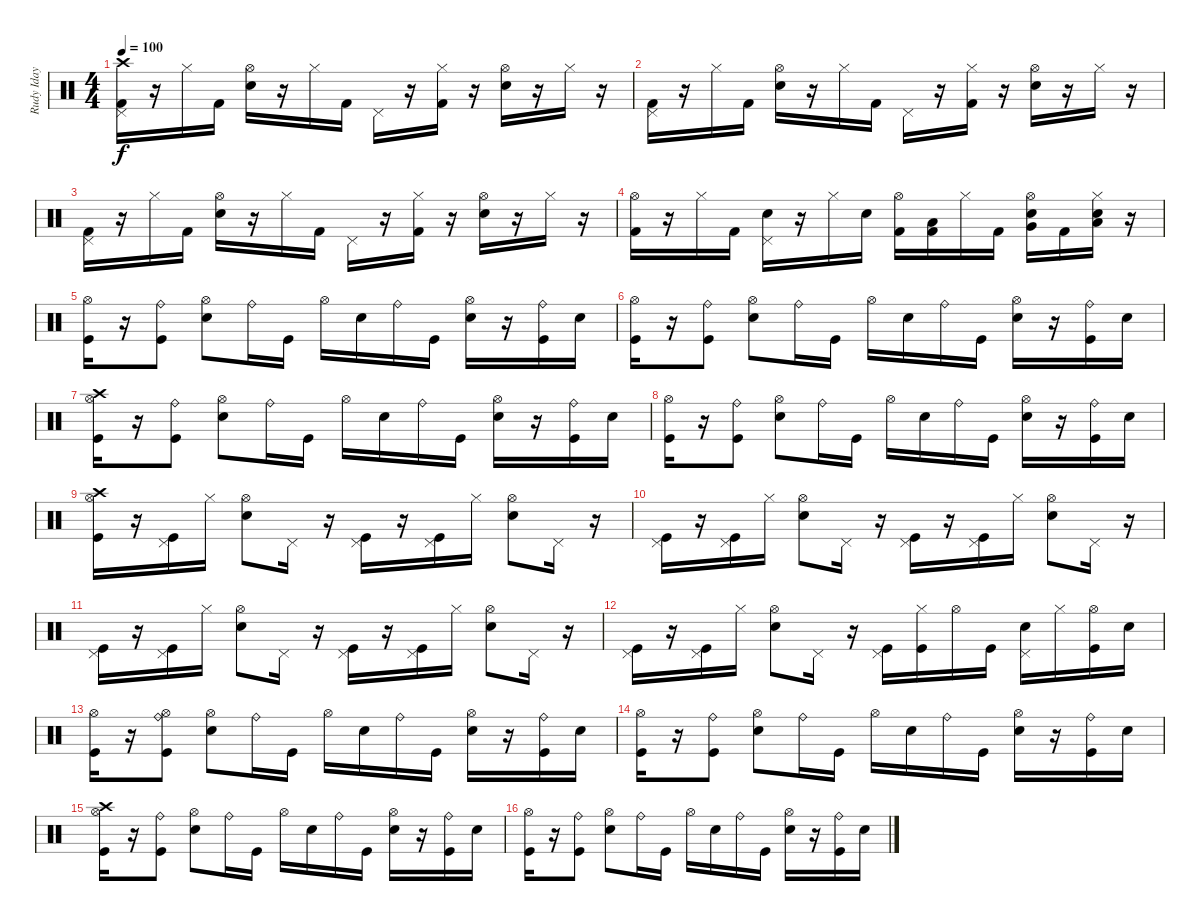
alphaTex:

\track ("Rudy Iday" "Rudy Iday") {instrument percussion}
\staff {score}
\articulation defaults
\ts (4 4)
\tempo 100
\clef neutral
\ks c
("Crash high (hit)" "Kick (hit) 2" "Pedal Hi-Hat (hit)").16{dy f} r.16 "Hi-Hat (closed)".16 "Kick (hit) 2".16 ("Electric Snare (hit)" "Hi-Hat (open)").16 r.16 "Hi-Hat (closed)".16 "Kick (hit) 2".16 "Pedal Hi-Hat (hit)".16 r.16 ("Hi-Hat (closed)" "Kick (hit) 2").16 r.16 ("Electric Snare (hit)" "Hi-Hat (open)").16 r.16 "Hi-Hat (closed)".16 r.16 |
("Pedal Hi-Hat (hit)" "Kick (hit) 2").16 r.16 "Hi-Hat (closed)".16 "Kick (hit) 2".16 ("Electric Snare (hit)" "Hi-Hat (open)").16 r.16 "Hi-Hat (closed)".16 "Kick (hit) 2".16 "Pedal Hi-Hat (hit)".16 r.16 ("Hi-Hat (closed)" "Kick (hit) 2").16 r.16 ("Electric Snare (hit)" "Hi-Hat (open)").16 r.16 "Hi-Hat (closed)".16 r.16 |
("Pedal Hi-Hat (hit)" "Kick (hit) 2").16 r.16 "Hi-Hat (closed)".16 "Kick (hit) 2".16 ("Electric Snare (hit)" "Hi-Hat (open)").16 r.16 "Hi-Hat (closed)".16 "Kick (hit) 2".16 "Pedal Hi-Hat (hit)".16 r.16 ("Hi-Hat (closed)" "Kick (hit) 2").16 r.16 ("Electric Snare (hit)" "Hi-Hat (open)").16 r.16 "Hi-Hat (closed)".16 r.16 |
("Hi-Hat (open)" "Kick (hit) 2").16 r.16 "Hi-Hat (closed)".16 "Kick (hit) 2".16 ("Electric Snare (hit)" "Pedal Hi-Hat (hit)").16 r.16 "Hi-Hat (closed)".16 "Electric Snare (hit)".16 ("Hi-Hat (open)" "Kick (hit) 2").16 ("Kick (hit) 2" "Low Tom (hit)").16 "Hi-Hat (closed)".16 "Kick (hit) 2".16 ("Electric Snare (hit)" "Hi-Hat (open)" "Very Low Tom (hit)").16 "Kick (hit) 2".16 ("Electric Snare (hit)" "Hi-Hat (closed)" "Low Floor Tom (hit)").16 r.16 |
("Kick (hit)" "Hi-Hat (open)").16 r.16 ("Ride (bell)" "Kick (hit)").8 ("Electric Snare (hit)" "Hi-Hat (open)").8 "Ride (bell)".16 "Kick (hit)".16 "Hi-Hat (open)".16 "Electric Snare (hit)".16 "Ride (bell)".16 "Kick (hit)".16 ("Electric Snare (hit)" "Hi-Hat (open)").16 r.16 ("Ride (bell)" "Kick (hit)").16 "Electric Snare (hit)".16 |
("Kick (hit)" "Hi-Hat (open)").16 r.16 ("Kick (hit)" "Ride (bell)").8 ("Electric Snare (hit)" "Hi-Hat (open)").8 "Ride (bell)".16 "Kick (hit)".16 "Hi-Hat (open)".16 "Electric Snare (hit)".16 "Ride (bell)".16 "Kick (hit)".16 ("Electric Snare (hit)" "Hi-Hat (open)").16 r.16 ("Ride (bell)" "Kick (hit)").16 "Electric Snare (hit)".16 |
("Hi-Hat (open)" "Crash high (hit)" "Kick (hit)").16 r.16 ("Ride (bell)" "Kick (hit)").8 ("Electric Snare (hit)" "Hi-Hat (open)").8 "Ride (bell)".16 "Kick (hit)".16 "Hi-Hat (open)".16 "Electric Snare (hit)".16 "Ride (bell)".16 "Kick (hit)".16 ("Electric Snare (hit)" "Hi-Hat (open)").16 r.16 ("Kick (hit)" "Ride (bell)").16 "Electric Snare (hit)".16 |
("Kick (hit)" "Hi-Hat (open)").16 r.16 ("Ride (bell)" "Kick (hit)").8 ("Electric Snare (hit)" "Hi-Hat (open)").8 "Ride (bell)".16 "Kick (hit)".16 "Hi-Hat (open)".16 "Electric Snare (hit)".16 "Ride (bell)".16 "Kick (hit)".16 ("Electric Snare (hit)" "Hi-Hat (open)").16 r.16 ("Ride (bell)" "Kick (hit)").16 "Electric Snare (hit)".16 |
("Hi-Hat (open)" "Crash high (hit)" "Kick (hit)").16 r.16 ("Kick (hit)" "Pedal Hi-Hat (hit)").16 "Hi-Hat (closed)".16 ("Electric Snare (hit)" "Hi-Hat (open)").8 "Pedal Hi-Hat (hit)".16 r.16 ("Kick (hit)" "Pedal Hi-Hat (hit)").16 r.16 ("Kick (hit)" "Pedal Hi-Hat (hit)").16 "Hi-Hat (closed)".16 ("Electric Snare (hit)" "Hi-Hat (open)").8 "Pedal Hi-Hat (hit)".16 r.16 |
("Kick (hit)" "Pedal Hi-Hat (hit)").16 r.16 ("Kick (hit)" "Pedal Hi-Hat (hit)").16 "Hi-Hat (closed)".16 ("Electric Snare (hit)" "Hi-Hat (open)").8 "Pedal Hi-Hat (hit)".16 r.16 ("Pedal Hi-Hat (hit)" "Kick (hit)").16 r.16 ("Pedal Hi-Hat (hit)" "Kick (hit)").16 "Hi-Hat (closed)".16 ("Electric Snare (hit)" "Hi-Hat (open)").8 "Pedal Hi-Hat (hit)".16 r.16 |
("Pedal Hi-Hat (hit)" "Kick (hit)").16 r.16 ("Pedal Hi-Hat (hit)" "Kick (hit)").16 "Hi-Hat (closed)".16 ("Electric Snare (hit)" "Hi-Hat (open)").8 "Pedal Hi-Hat (hit)".16 r.16 ("Pedal Hi-Hat (hit)" "Kick (hit)").16 r.16 ("Pedal Hi-Hat (hit)" "Kick (hit)").16 "Hi-Hat (closed)".16 ("Electric Snare (hit)" "Hi-Hat (open)").8 "Pedal Hi-Hat (hit)".16 r.16 |
("Pedal Hi-Hat (hit)" "Kick (hit)").16 r.16 ("Pedal Hi-Hat (hit)" "Kick (hit)").16 "Hi-Hat (closed)".16 ("Electric Snare (hit)" "Hi-Hat (open)").8 "Pedal Hi-Hat (hit)".16 r.16 ("Pedal Hi-Hat (hit)" "Kick (hit)").16 ("Hi-Hat (closed)" "Kick (hit)").16 "Hi-Hat (open)".16 "Kick (hit)".16 ("Electric Snare (hit)" "Pedal Hi-Hat (hit)").16 "Hi-Hat (closed)".16 ("Hi-Hat (open)" "Kick (hit)").16 "Electric Snare (hit)".16 |
("Hi-Hat (open)" "Kick (hit)").16 r.16 ("Hi-Hat (open)" "Kick (hit)" "Ride (bell)").8 ("Electric Snare (hit)" "Hi-Hat (open)").8 "Ride (bell)".16 "Kick (hit)".16 "Hi-Hat (open)".16 "Electric Snare (hit)".16 "Ride (bell)".16 "Kick (hit)".16 ("Electric Snare (hit)" "Hi-Hat (open)").16 r.16 ("Ride (bell)" "Kick (hit)").16 "Electric Snare (hit)".16 |
("Hi-Hat (open)" "Kick (hit)").16 r.16 ("Ride (bell)" "Kick (hit)").8 ("Electric Snare (hit)" "Hi-Hat (open)").8 "Ride (bell)".16 "Kick (hit)".16 "Hi-Hat (open)".16 "Electric Snare (hit)".16 "Ride (bell)".16 "Kick (hit)".16 ("Electric Snare (hit)" "Hi-Hat (open)").16 r.16 ("Ride (bell)" "Kick (hit)").16 "Electric Snare (hit)".16 |
("Kick (hit)" "Hi-Hat (open)" "Crash high (hit)").16 r.16 ("Ride (bell)" "Kick (hit)").8 ("Electric Snare (hit)" "Hi-Hat (open)").8 "Ride (bell)".16 "Kick (hit)".16 "Hi-Hat (open)".16 "Electric Snare (hit)".16 "Ride (bell)".16 "Kick (hit)".16 ("Electric Snare (hit)" "Hi-Hat (open)").16 r.16 ("Ride (bell)" "Kick (hit)").16 "Electric Snare (hit)".16 |
("Hi-Hat (open)" "Kick (hit)").16 r.16 ("Ride (bell)" "Kick (hit)").8 ("Electric Snare (hit)" "Hi-Hat (open)").8 "Ride (bell)".16 "Kick (hit)".16 "Hi-Hat (open)".16 "Electric Snare (hit)".16 "Ride (bell)".16 "Kick (hit)".16 ("Electric Snare (hit)" "Hi-Hat (open)").16 r.16 ("Kick (hit)" "Ride (bell)").16 "Electric Snare (hit)".16
